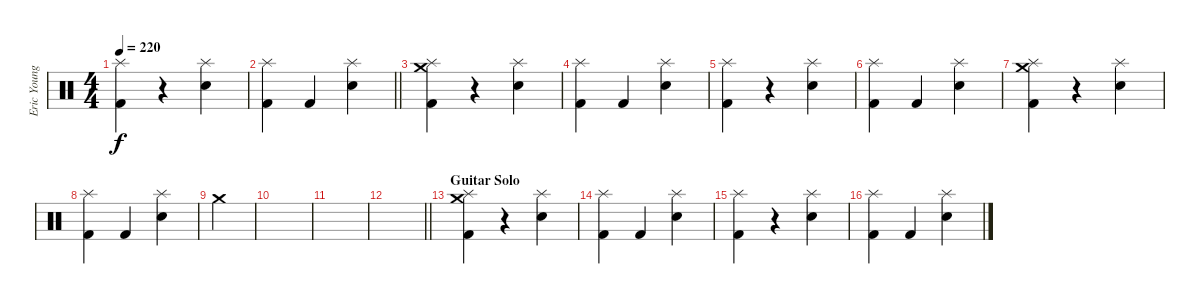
\track ("Eric Young (Drums)" "Eric Young") {instrument percussion}
\staff {score}
\articulation defaults
\ts (4 4)
\tempo 220
\clef neutral
\ks c
("Splash (hit)" "Kick (hit) 2").4{dy f} r.4 ("Splash (hit)" "Snare (hit) 2").4 |
\barLineRight lightlight
("Splash (hit)" "Kick (hit) 2").4 "Kick (hit) 2".4 ("Splash (hit)" "Snare (hit) 2").4 |
("Splash (hit)" "Kick (hit) 2" "Crash medium (hit)").4 r.4 ("Splash (hit)" "Snare (hit) 2").4 |
("Splash (hit)" "Kick (hit) 2").4 "Kick (hit) 2".4 ("Splash (hit)" "Snare (hit) 2").4 |
("Splash (hit)" "Kick (hit) 2").4 r.4 ("Splash (hit)" "Snare (hit) 2").4 |
("Splash (hit)" "Kick (hit) 2").4 "Kick (hit) 2".4 ("Splash (hit)" "Snare (hit) 2").4 |
("Splash (hit)" "Kick (hit) 2" "Crash medium (hit)").4 r.4 ("Splash (hit)" "Snare (hit) 2").4 |
("Splash (hit)" "Kick (hit) 2").4 "Kick (hit) 2".4 ("Splash (hit)" "Snare (hit) 2").4 |
"Crash medium (hit)".4 |
|
|
\barLineRight lightlight
|
\section ("" "Guitar Solo")
("Splash (hit)" "Kick (hit) 2" "Crash medium (hit)").4 r.4 ("Splash (hit)" "Snare (hit) 2").4 |
("Splash (hit)" "Kick (hit) 2").4 "Kick (hit) 2".4 ("Splash (hit)" "Snare (hit) 2").4 |
("Splash (hit)" "Kick (hit) 2").4 r.4 ("Splash (hit)" "Snare (hit) 2").4 |
("Splash (hit)" "Kick (hit) 2").4 "Kick (hit) 2".4 ("Splash (hit)" "Snare (hit) 2").4
